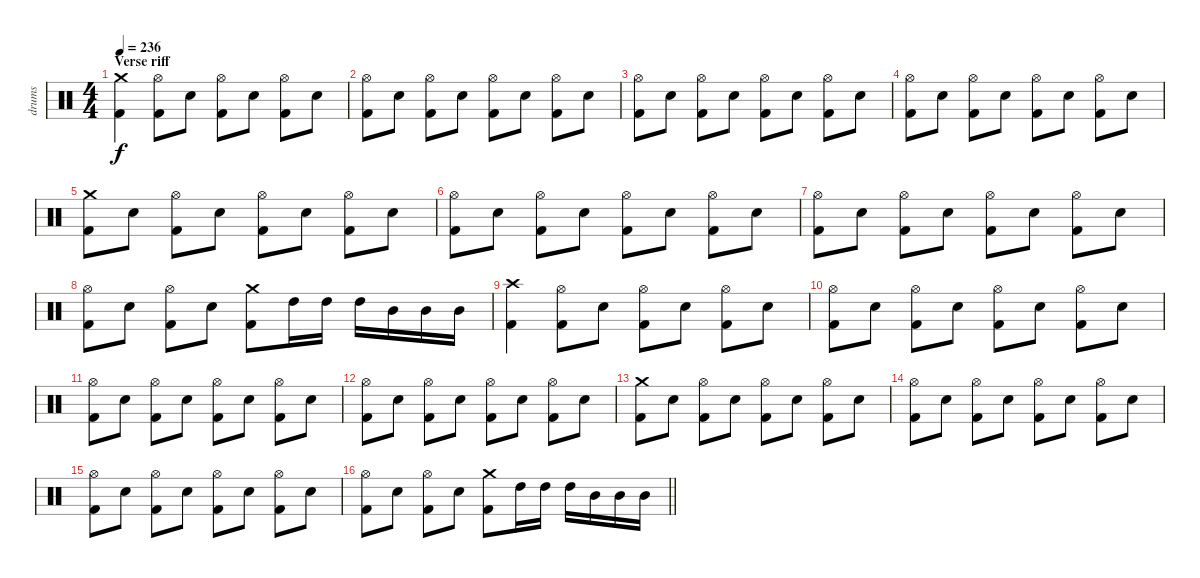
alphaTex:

\track ("drums" "drums") {instrument percussion}
\staff {score}
\articulation defaults
\ts (4 4)
\section ("" "Verse riff")
\tempo 236
\clef neutral
\ks c
("Crash medium (hit)" "Kick (hit) 2").4{dy f} ("Hi-Hat (open)" "Kick (hit) 2").8 "Electric Snare (hit)".8 ("Hi-Hat (open)" "Kick (hit) 2").8 "Electric Snare (hit)".8 ("Hi-Hat (open)" "Kick (hit) 2").8 "Electric Snare (hit)".8 |
("Hi-Hat (open)" "Kick (hit) 2").8 "Electric Snare (hit)".8 ("Hi-Hat (open)" "Kick (hit) 2").8 "Electric Snare (hit)".8 ("Hi-Hat (open)" "Kick (hit) 2").8 "Electric Snare (hit)".8 ("Hi-Hat (open)" "Kick (hit) 2").8 "Electric Snare (hit)".8 |
("Hi-Hat (open)" "Kick (hit) 2").8 "Electric Snare (hit)".8 ("Hi-Hat (open)" "Kick (hit) 2").8 "Electric Snare (hit)".8 ("Hi-Hat (open)" "Kick (hit) 2").8 "Electric Snare (hit)".8 ("Hi-Hat (open)" "Kick (hit) 2").8 "Electric Snare (hit)".8 |
("Hi-Hat (open)" "Kick (hit) 2").8 "Electric Snare (hit)".8 ("Hi-Hat (open)" "Kick (hit) 2").8 "Electric Snare (hit)".8 ("Hi-Hat (open)" "Kick (hit) 2").8 "Electric Snare (hit)".8 ("Hi-Hat (open)" "Kick (hit) 2").8 "Electric Snare (hit)".8 |
("Crash medium (hit)" "Kick (hit) 2").8 "Electric Snare (hit)".8 ("Hi-Hat (open)" "Kick (hit) 2").8 "Electric Snare (hit)".8 ("Hi-Hat (open)" "Kick (hit) 2").8 "Electric Snare (hit)".8 ("Hi-Hat (open)" "Kick (hit) 2").8 "Electric Snare (hit)".8 |
("Hi-Hat (open)" "Kick (hit) 2").8 "Electric Snare (hit)".8 ("Hi-Hat (open)" "Kick (hit) 2").8 "Electric Snare (hit)".8 ("Hi-Hat (open)" "Kick (hit) 2").8 "Electric Snare (hit)".8 ("Hi-Hat (open)" "Kick (hit) 2").8 "Electric Snare (hit)".8 |
("Hi-Hat (open)" "Kick (hit) 2").8 "Electric Snare (hit)".8 ("Hi-Hat (open)" "Kick (hit) 2").8 "Electric Snare (hit)".8 ("Hi-Hat (open)" "Kick (hit) 2").8 "Electric Snare (hit)".8 ("Hi-Hat (open)" "Kick (hit) 2").8 "Electric Snare (hit)".8 |
("Hi-Hat (open)" "Kick (hit) 2").8 "Electric Snare (hit)".8 ("Hi-Hat (open)" "Kick (hit) 2").8 "Electric Snare (hit)".8 ("Crash medium (hit)" "Kick (hit) 2").8 "High Tom (hit)".16 "High Tom (hit)".16 "High Tom (hit)".16 "Mid Tom (hit)".16 "Mid Tom (hit)".16 "Mid Tom (hit)".16 |
("Crash high (hit)" "Kick (hit) 2").4 ("Hi-Hat (open)" "Kick (hit) 2").8 "Electric Snare (hit)".8 ("Hi-Hat (open)" "Kick (hit) 2").8 "Electric Snare (hit)".8 ("Hi-Hat (open)" "Kick (hit) 2").8 "Electric Snare (hit)".8 |
("Hi-Hat (open)" "Kick (hit) 2").8 "Electric Snare (hit)".8 ("Hi-Hat (open)" "Kick (hit) 2").8 "Electric Snare (hit)".8 ("Hi-Hat (open)" "Kick (hit) 2").8 "Electric Snare (hit)".8 ("Hi-Hat (open)" "Kick (hit) 2").8 "Electric Snare (hit)".8 |
("Hi-Hat (open)" "Kick (hit) 2").8 "Electric Snare (hit)".8 ("Hi-Hat (open)" "Kick (hit) 2").8 "Electric Snare (hit)".8 ("Hi-Hat (open)" "Kick (hit) 2").8 "Electric Snare (hit)".8 ("Hi-Hat (open)" "Kick (hit) 2").8 "Electric Snare (hit)".8 |
("Hi-Hat (open)" "Kick (hit) 2").8 "Electric Snare (hit)".8 ("Hi-Hat (open)" "Kick (hit) 2").8 "Electric Snare (hit)".8 ("Hi-Hat (open)" "Kick (hit) 2").8 "Electric Snare (hit)".8 ("Hi-Hat (open)" "Kick (hit) 2").8 "Electric Snare (hit)".8 |
("Crash medium (hit)" "Kick (hit) 2").8 "Electric Snare (hit)".8 ("Hi-Hat (open)" "Kick (hit) 2").8 "Electric Snare (hit)".8 ("Hi-Hat (open)" "Kick (hit) 2").8 "Electric Snare (hit)".8 ("Hi-Hat (open)" "Kick (hit) 2").8 "Electric Snare (hit)".8 |
("Hi-Hat (open)" "Kick (hit) 2").8 "Electric Snare (hit)".8 ("Hi-Hat (open)" "Kick (hit) 2").8 "Electric Snare (hit)".8 ("Hi-Hat (open)" "Kick (hit) 2").8 "Electric Snare (hit)".8 ("Hi-Hat (open)" "Kick (hit) 2").8 "Electric Snare (hit)".8 |
("Hi-Hat (open)" "Kick (hit) 2").8 "Electric Snare (hit)".8 ("Hi-Hat (open)" "Kick (hit) 2").8 "Electric Snare (hit)".8 ("Hi-Hat (open)" "Kick (hit) 2").8 "Electric Snare (hit)".8 ("Hi-Hat (open)" "Kick (hit) 2").8 "Electric Snare (hit)".8 |
\barLineRight lightlight
("Hi-Hat (open)" "Kick (hit) 2").8 "Electric Snare (hit)".8 ("Hi-Hat (open)" "Kick (hit) 2").8 "Electric Snare (hit)".8 ("Crash medium (hit)" "Kick (hit) 2").8 "High Tom (hit)".16 "High Tom (hit)".16 "High Tom (hit)".16 "Mid Tom (hit)".16 "Mid Tom (hit)".16 "Mid Tom (hit)".16
